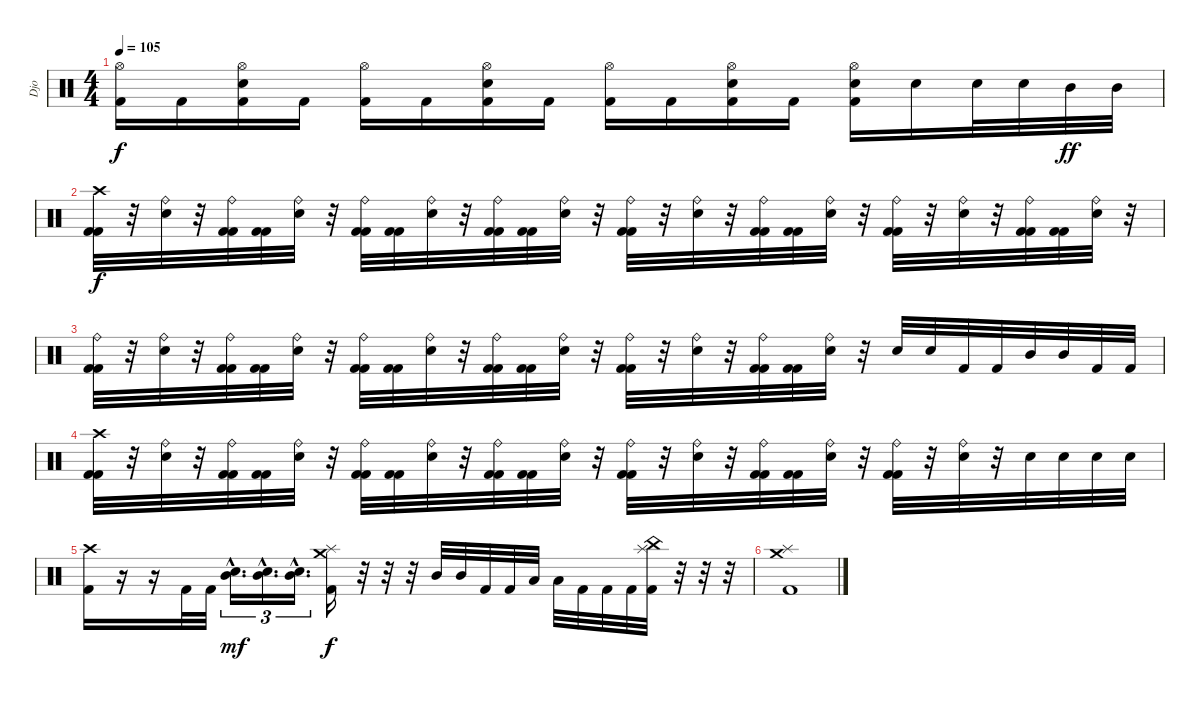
\track ("Djo" "Djo") {instrument percussion}
\staff {score}
\articulation defaults
\ts (4 4)
\tempo 105
\clef neutral
\ks c
("Hi-Hat (open)" "Kick (hit) 2").16{dy f} "Kick (hit) 2".16 ("Hi-Hat (open)" "Snare (hit) 2" "Kick (hit) 2").16 "Kick (hit) 2".16 ("Hi-Hat (open)" "Kick (hit) 2").16 "Kick (hit) 2".16 ("Hi-Hat (open)" "Snare (hit) 2" "Kick (hit) 2").16 "Kick (hit) 2".16 ("Hi-Hat (open)" "Kick (hit) 2").16 "Kick (hit) 2".16 ("Hi-Hat (open)" "Snare (hit) 2" "Kick (hit) 2").16 "Kick (hit) 2".16 ("Hi-Hat (open)" "Snare (hit) 2" "Kick (hit) 2").16 "Snare (hit) 2".16 "Snare (hit) 2".32 "Snare (hit) 2".32 "Mid Tom (hit)".32{dy ff} "Mid Tom (hit)".32 |
("Crash high (hit)" "Kick (hit) 2" "Kick (hit) 2").32{dy f} r.32 ("Ride (bell)" "Snare (hit) 2").32 r.32 ("Ride (bell)" "Kick (hit) 2" "Kick (hit) 2").32 ("Kick (hit) 2" "Kick (hit) 2").32 ("Ride (bell)" "Snare (hit) 2").32 r.32 ("Ride (bell)" "Kick (hit) 2" "Kick (hit) 2").32 ("Kick (hit) 2" "Kick (hit) 2").32 ("Ride (bell)" "Snare (hit) 2").32 r.32 ("Ride (bell)" "Kick (hit) 2" "Kick (hit) 2").32 ("Kick (hit) 2" "Kick (hit) 2").32 ("Ride (bell)" "Snare (hit) 2").32 r.32 ("Ride (bell)" "Kick (hit) 2" "Kick (hit) 2").32 r.32 ("Ride (bell)" "Snare (hit) 2").32 r.32 ("Ride (bell)" "Kick (hit) 2" "Kick (hit) 2").32 ("Kick (hit) 2" "Kick (hit) 2").32 ("Ride (bell)" "Snare (hit) 2").32 r.32 ("Ride (bell)" "Kick (hit) 2" "Kick (hit) 2").32 r.32 ("Ride (bell)" "Snare (hit) 2").32 r.32 ("Ride (bell)" "Kick (hit) 2" "Kick (hit) 2").32 ("Kick (hit) 2" "Kick (hit) 2").32 ("Ride (bell)" "Snare (hit) 2").32 r.32 |
("Ride (bell)" "Kick (hit) 2" "Kick (hit) 2").32 r.32 ("Ride (bell)" "Snare (hit) 2").32 r.32 ("Ride (bell)" "Kick (hit) 2" "Kick (hit) 2").32 ("Kick (hit) 2" "Kick (hit) 2").32 ("Ride (bell)" "Snare (hit) 2").32 r.32 ("Ride (bell)" "Kick (hit) 2" "Kick (hit) 2").32 ("Kick (hit) 2" "Kick (hit) 2").32 ("Ride (bell)" "Snare (hit) 2").32 r.32 ("Ride (bell)" "Kick (hit) 2" "Kick (hit) 2").32 ("Kick (hit) 2" "Kick (hit) 2").32 ("Ride (bell)" "Snare (hit) 2").32 r.32 ("Ride (bell)" "Kick (hit) 2" "Kick (hit) 2").32 r.32 ("Ride (bell)" "Snare (hit) 2").32 r.32 ("Ride (bell)" "Kick (hit) 2" "Kick (hit) 2").32 ("Kick (hit) 2" "Kick (hit) 2").32 ("Ride (bell)" "Snare (hit) 2").32 r.32 "Snare (hit) 2".32 "Snare (hit) 2".32 "Kick (hit) 2".32 "Kick (hit) 2".32 "Mid Tom (hit)".32 "Mid Tom (hit)".32 "Kick (hit) 2".32 "Kick (hit) 2".32 |
("Crash high (hit)" "Kick (hit) 2" "Kick (hit) 2").32 r.32 ("Ride (bell)" "Snare (hit) 2").32 r.32 ("Ride (bell)" "Kick (hit) 2" "Kick (hit) 2").32 ("Kick (hit) 2" "Kick (hit) 2").32 ("Ride (bell)" "Snare (hit) 2").32 r.32 ("Ride (bell)" "Kick (hit) 2" "Kick (hit) 2").32 ("Kick (hit) 2" "Kick (hit) 2").32 ("Ride (bell)" "Snare (hit) 2").32 r.32 ("Ride (bell)" "Kick (hit) 2" "Kick (hit) 2").32 ("Kick (hit) 2" "Kick (hit) 2").32 ("Ride (bell)" "Snare (hit) 2").32 r.32 ("Ride (bell)" "Kick (hit) 2" "Kick (hit) 2").32 r.32 ("Ride (bell)" "Snare (hit) 2").32 r.32 ("Ride (bell)" "Kick (hit) 2" "Kick (hit) 2").32 ("Kick (hit) 2" "Kick (hit) 2").32 ("Ride (bell)" "Snare (hit) 2").32 r.32 ("Ride (bell)" "Kick (hit) 2" "Kick (hit) 2").32 r.32 ("Ride (bell)" "Snare (hit) 2").32 r.32 "Snare (hit) 2".32 "Snare (hit) 2".32 "Snare (hit) 2".32 "Snare (hit) 2".32 |
("Crash high (hit)" "Kick (hit) 2").16 r.16 r.16 "Kick (hit) 2".32 "Kick (hit) 2".32 ("Snare (hit) 2"{hac} "Mid Tom (hit)"{hac}).16{d tu (3 2) dy mf} ("Snare (hit) 2"{hac} "Mid Tom (hit)"{hac}).16{d tu (3 2)} ("Snare (hit) 2"{hac} "Mid Tom (hit)"{hac}).16{d tu (3 2)} ("Crash medium (hit)" "Splash (hit)" "Kick (hit) 2").16{dy f} r.32 r.32 r.32 "Mid Tom (hit)".32 "Mid Tom (hit)".32 "Kick (hit) 2".32 "Kick (hit) 2".32 "Low Tom (hit)".32 "Low Tom (hit)".32 "Kick (hit) 2".32 "Kick (hit) 2".32 "Kick (hit) 2".32 ("Splash (hit)" "China (hit)" "Kick (hit) 2").32 r.32 r.32 r.32 |
("Crash medium (hit)" "Splash (hit)" "Kick (hit) 2").1
